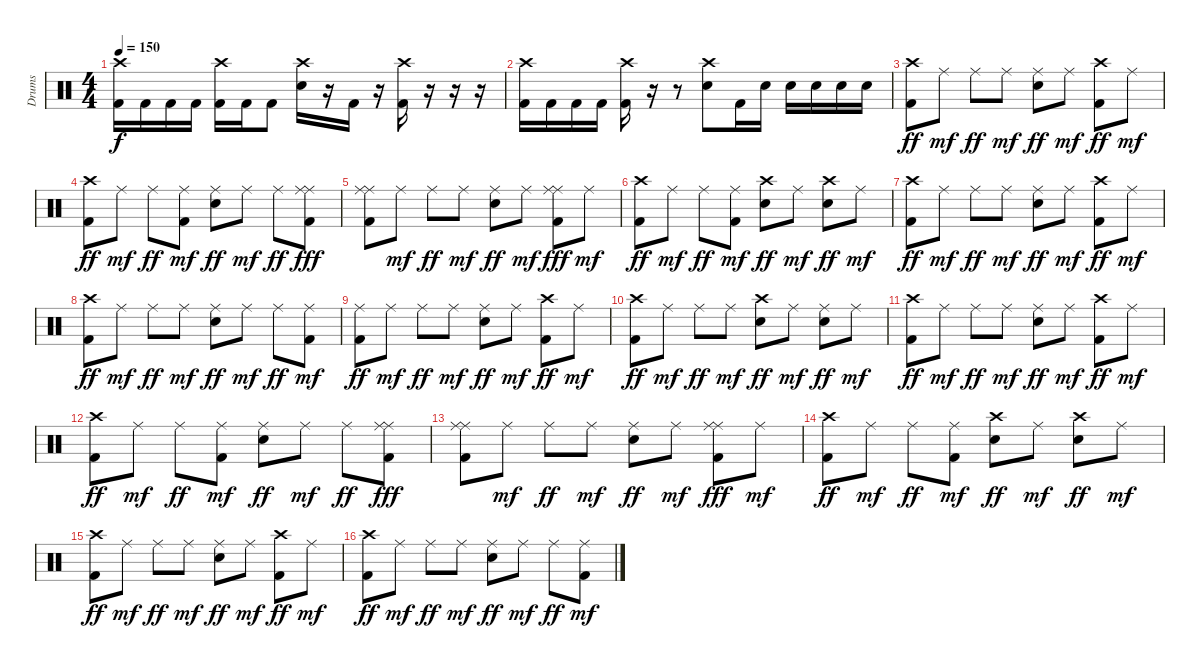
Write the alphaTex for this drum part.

\track ("Drums" "Drums") {instrument percussion}
\staff {score}
\articulation defaults
\ts (4 4)
\tempo 150
\clef neutral
\ks c
("Crash high (hit)" "Kick (hit) 2").16{dy f} "Kick (hit) 2".16 "Kick (hit) 2".16 "Kick (hit) 2".16 ("Crash high (hit)" "Kick (hit) 2").16 "Kick (hit) 2".16 "Kick (hit) 2".8 ("Crash high (hit)" "Electric Snare (hit)").16 r.16 "Kick (hit) 2".16 r.16 ("Crash high (hit)" "Kick (hit) 2").16 r.16 r.16 r.16 |
("Crash high (hit)" "Kick (hit) 2").16 "Kick (hit) 2".16 "Kick (hit) 2".16 "Kick (hit) 2".16 ("Crash high (hit)" "Kick (hit) 2").16 r.16 r.8 ("Crash high (hit)" "Electric Snare (hit)").8 "Kick (hit) 2".16 "Electric Snare (hit)".16 "Electric Snare (hit)".16 "Electric Snare (hit)".16 "Electric Snare (hit)".16 "Electric Snare (hit)".16 |
("Crash high (hit)" "Kick (hit) 2").8{dy ff} "Ride (middle)".8{dy mf} "Ride (middle)".8{dy ff} "Ride (middle)".8{dy mf} ("Ride (middle)" "Electric Snare (hit)").8{dy ff} "Ride (middle)".8{dy mf} ("Crash high (hit)" "Kick (hit) 2").8{dy ff} "Ride (middle)".8{dy mf} |
("Crash high (hit)" "Kick (hit) 2").8{dy ff} "Ride (middle)".8{dy mf} "Ride (middle)".8{dy ff} ("Ride (middle)" "Kick (hit) 2").8{dy mf} ("Ride (middle)" "Electric Snare (hit)").8{dy ff} "Ride (middle)".8{dy mf} "Ride (middle)".8{dy ff} ("Ride (middle)" "Ride (middle)" "Kick (hit) 2").8{dy fff} |
("Ride (middle)" "Ride (middle)" "Kick (hit) 2").8 "Ride (middle)".8{dy mf} "Ride (middle)".8{dy ff} "Ride (middle)".8{dy mf} ("Ride (middle)" "Electric Snare (hit)").8{dy ff} "Ride (middle)".8{dy mf} ("Ride (middle)" "Ride (middle)" "Kick (hit) 2").8{dy fff} "Ride (middle)".8{dy mf} |
("Crash high (hit)" "Kick (hit) 2").8{dy ff} "Ride (middle)".8{dy mf} "Ride (middle)".8{dy ff} ("Ride (middle)" "Kick (hit) 2").8{dy mf} ("Crash high (hit)" "Electric Snare (hit)").8{dy ff} "Ride (middle)".8{dy mf} ("Crash high (hit)" "Electric Snare (hit)").8{dy ff} "Ride (middle)".8{dy mf} |
("Crash high (hit)" "Kick (hit) 2").8{dy ff} "Ride (middle)".8{dy mf} "Ride (middle)".8{dy ff} "Ride (middle)".8{dy mf} ("Ride (middle)" "Electric Snare (hit)").8{dy ff} "Ride (middle)".8{dy mf} ("Crash high (hit)" "Kick (hit) 2").8{dy ff} "Ride (middle)".8{dy mf} |
("Crash high (hit)" "Kick (hit) 2").8{dy ff} "Ride (middle)".8{dy mf} "Ride (middle)".8{dy ff} "Ride (middle)".8{dy mf} ("Ride (middle)" "Electric Snare (hit)").8{dy ff} "Ride (middle)".8{dy mf} "Ride (middle)".8{dy ff} ("Ride (middle)" "Kick (hit) 2").8{dy mf} |
("Ride (middle)" "Kick (hit) 2").8{dy ff} "Ride (middle)".8{dy mf} "Ride (middle)".8{dy ff} "Ride (middle)".8{dy mf} ("Ride (middle)" "Electric Snare (hit)").8{dy ff} "Ride (middle)".8{dy mf} ("Crash high (hit)" "Kick (hit) 2").8{dy ff} "Ride (middle)".8{dy mf} |
("Crash high (hit)" "Kick (hit) 2").8{dy ff} "Ride (middle)".8{dy mf} "Ride (middle)".8{dy ff} "Ride (middle)".8{dy mf} ("Crash high (hit)" "Electric Snare (hit)").8{dy ff} "Ride (middle)".8{dy mf} ("Ride (middle)" "Electric Snare (hit)").8{dy ff} "Ride (middle)".8{dy mf} |
("Crash high (hit)" "Kick (hit) 2").8{dy ff} "Ride (middle)".8{dy mf} "Ride (middle)".8{dy ff} "Ride (middle)".8{dy mf} ("Ride (middle)" "Electric Snare (hit)").8{dy ff} "Ride (middle)".8{dy mf} ("Crash high (hit)" "Kick (hit) 2").8{dy ff} "Ride (middle)".8{dy mf} |
("Crash high (hit)" "Kick (hit) 2").8{dy ff} "Ride (middle)".8{dy mf} "Ride (middle)".8{dy ff} ("Ride (middle)" "Kick (hit) 2").8{dy mf} ("Ride (middle)" "Electric Snare (hit)").8{dy ff} "Ride (middle)".8{dy mf} "Ride (middle)".8{dy ff} ("Ride (middle)" "Ride (middle)" "Kick (hit) 2").8{dy fff} |
("Ride (middle)" "Ride (middle)" "Kick (hit) 2").8 "Ride (middle)".8{dy mf} "Ride (middle)".8{dy ff} "Ride (middle)".8{dy mf} ("Ride (middle)" "Electric Snare (hit)").8{dy ff} "Ride (middle)".8{dy mf} ("Ride (middle)" "Ride (middle)" "Kick (hit) 2").8{dy fff} "Ride (middle)".8{dy mf} |
("Crash high (hit)" "Kick (hit) 2").8{dy ff} "Ride (middle)".8{dy mf} "Ride (middle)".8{dy ff} ("Ride (middle)" "Kick (hit) 2").8{dy mf} ("Crash high (hit)" "Electric Snare (hit)").8{dy ff} "Ride (middle)".8{dy mf} ("Crash high (hit)" "Electric Snare (hit)").8{dy ff} "Ride (middle)".8{dy mf} |
("Crash high (hit)" "Kick (hit) 2").8{dy ff} "Ride (middle)".8{dy mf} "Ride (middle)".8{dy ff} "Ride (middle)".8{dy mf} ("Ride (middle)" "Electric Snare (hit)").8{dy ff} "Ride (middle)".8{dy mf} ("Crash high (hit)" "Kick (hit) 2").8{dy ff} "Ride (middle)".8{dy mf} |
("Crash high (hit)" "Kick (hit) 2").8{dy ff} "Ride (middle)".8{dy mf} "Ride (middle)".8{dy ff} "Ride (middle)".8{dy mf} ("Ride (middle)" "Electric Snare (hit)").8{dy ff} "Ride (middle)".8{dy mf} "Ride (middle)".8{dy ff} ("Ride (middle)" "Kick (hit) 2").8{dy mf}
